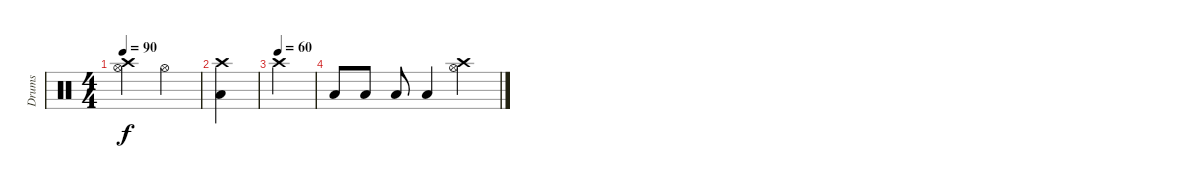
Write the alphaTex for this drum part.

\track ("Drums" "Drums") {instrument percussion}
\staff {score}
\articulation defaults
\ts (4 4)
\tempo 90
\clef neutral
\ks c
("Crash high (hit)" "Hi-Hat (open)").4{dy f} "Hi-Hat (open)".4 |
("Crash high (hit)" "Low Tom (hit)").4 |
\tempo (60)
"Crash high (hit)".4 |
"Low Tom (hit)".8 "Low Tom (hit)".8 "Low Tom (hit)".8 "Low Tom (hit)".4 ("Crash high (hit)" "Hi-Hat (open)").4
